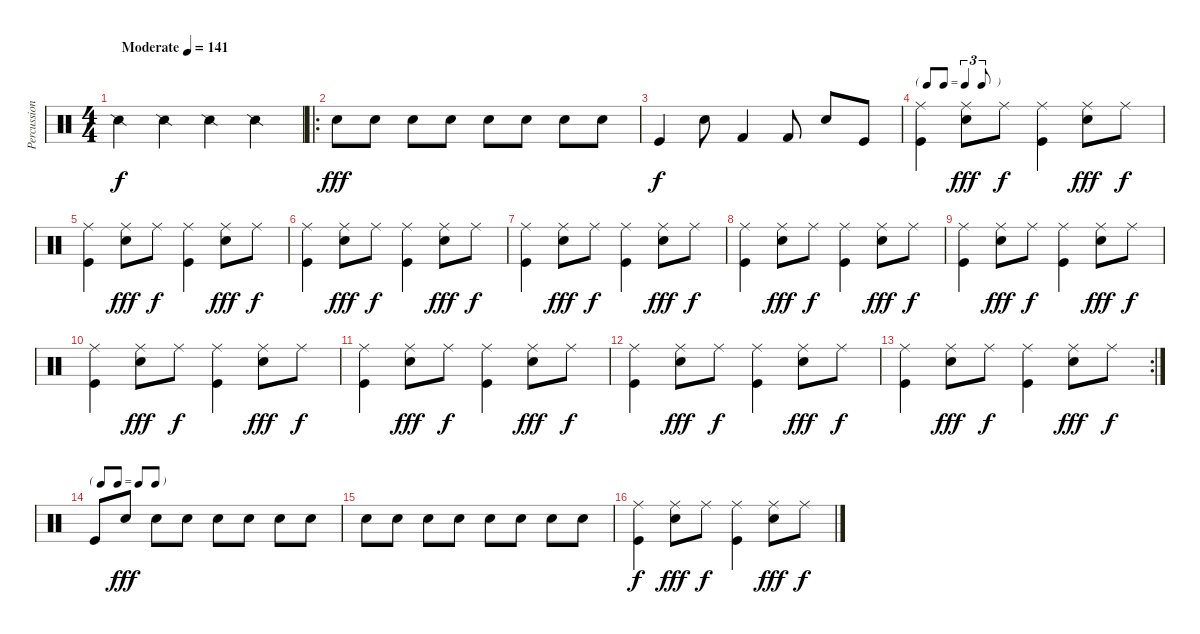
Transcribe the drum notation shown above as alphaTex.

\track ("Percussions" "Percussion") {mute instrument percussion}
\staff {score}
\articulation defaults
\ts (4 4)
\tempo (141 "Moderate")
\clef neutral
\ks c "Snare (side stick) 2".4{dy f} "Snare (side stick) 2".4 "Snare (side stick) 2".4 "Snare (side stick) 2".4
|
\ro "Snare (hit) 2".8{dy fff} "Snare (hit) 2".8 "Snare (hit) 2".8 "Snare (hit) 2".8 "Snare (hit) 2".8 "Snare (hit) 2".8 "Snare (hit) 2".8 "Snare (hit) 2".8
|
"Kick (hit)".4{dy f} "Snare (hit) 2".8 "Kick (hit) 2".4 "Kick (hit) 2".8 "Snare (hit) 2".8 "Kick (hit)".8 |
\tf triplet8th
("Kick (hit)" "Ride (middle)").4 ("Snare (hit) 2" "Ride (middle)").8{dy fff} "Ride (middle)".8{dy f} ("Kick (hit)" "Ride (middle)").4 ("Snare (hit) 2" "Ride (middle)").8{dy fff} "Ride (middle)".8{dy f} |
("Kick (hit)" "Ride (middle)").4 ("Snare (hit) 2" "Ride (middle)").8{dy fff} "Ride (middle)".8{dy f} ("Kick (hit)" "Ride (middle)").4 ("Snare (hit) 2" "Ride (middle)").8{dy fff} "Ride (middle)".8{dy f} |
("Kick (hit)" "Ride (middle)").4 ("Snare (hit) 2" "Ride (middle)").8{dy fff} "Ride (middle)".8{dy f} ("Kick (hit)" "Ride (middle)").4 ("Snare (hit) 2" "Ride (middle)").8{dy fff} "Ride (middle)".8{dy f} |
("Kick (hit)" "Ride (middle)").4 ("Snare (hit) 2" "Ride (middle)").8{dy fff} "Ride (middle)".8{dy f} ("Kick (hit)" "Ride (middle)").4 ("Snare (hit) 2" "Ride (middle)").8{dy fff} "Ride (middle)".8{dy f} |
("Kick (hit)" "Ride (middle)").4 ("Snare (hit) 2" "Ride (middle)").8{dy fff} "Ride (middle)".8{dy f} ("Kick (hit)" "Ride (middle)").4 ("Snare (hit) 2" "Ride (middle)").8{dy fff} "Ride (middle)".8{dy f} |
("Kick (hit)" "Ride (middle)").4 ("Snare (hit) 2" "Ride (middle)").8{dy fff} "Ride (middle)".8{dy f} ("Kick (hit)" "Ride (middle)").4 ("Snare (hit) 2" "Ride (middle)").8{dy fff} "Ride (middle)".8{dy f} |
("Kick (hit)" "Ride (middle)").4 ("Snare (hit) 2" "Ride (middle)").8{dy fff} "Ride (middle)".8{dy f} ("Kick (hit)" "Ride (middle)").4 ("Snare (hit) 2" "Ride (middle)").8{dy fff} "Ride (middle)".8{dy f} |
("Kick (hit)" "Ride (middle)").4 ("Snare (hit) 2" "Ride (middle)").8{dy fff} "Ride (middle)".8{dy f} ("Kick (hit)" "Ride (middle)").4 ("Snare (hit) 2" "Ride (middle)").8{dy fff} "Ride (middle)".8{dy f} |
("Kick (hit)" "Ride (middle)").4 ("Snare (hit) 2" "Ride (middle)").8{dy fff} "Ride (middle)".8{dy f} ("Kick (hit)" "Ride (middle)").4 ("Snare (hit) 2" "Ride (middle)").8{dy fff} "Ride (middle)".8{dy f} |
\rc 2
("Kick (hit)" "Ride (middle)").4 ("Snare (hit) 2" "Ride (middle)").8{dy fff} "Ride (middle)".8{dy f} ("Kick (hit)" "Ride (middle)").4 ("Snare (hit) 2" "Ride (middle)").8{dy fff} "Ride (middle)".8{dy f} |
\tf none "Kick (hit)".8 "Snare (hit) 2".8{dy fff} "Snare (hit) 2".8 "Snare (hit) 2".8 "Snare (hit) 2".8 "Snare (hit) 2".8 "Snare (hit) 2".8 "Snare (hit) 2".8
|
"Snare (hit) 2".8 "Snare (hit) 2".8 "Snare (hit) 2".8 "Snare (hit) 2".8 "Snare (hit) 2".8 "Snare (hit) 2".8 "Snare (hit) 2".8 "Snare (hit) 2".8 |
("Kick (hit)" "Ride (middle)").4{dy f} ("Snare (hit) 2" "Ride (middle)").8{dy fff} "Ride (middle)".8{dy f} ("Kick (hit)" "Ride (middle)").4 ("Snare (hit) 2" "Ride (middle)").8{dy fff} "Ride (middle)".8{dy f}
